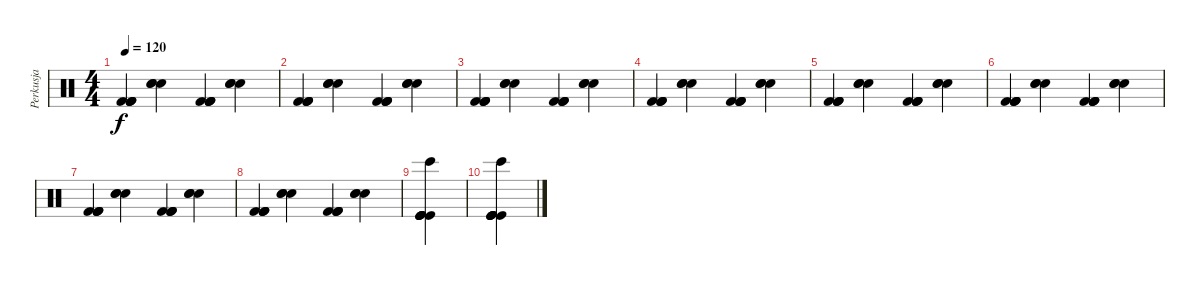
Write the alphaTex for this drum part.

\track ("Perkusja" "Perkusja") {instrument percussion}
\staff {score}
\articulation defaults
\ts (4 4)
\tempo 120
\clef neutral
\ks c
("Kick (hit) 2" "Kick (hit) 2" "Kick (hit) 2" "Kick (hit) 2").4{dy f} ("Snare (hit) 2" "Snare (hit) 2" "Snare (hit) 2").4 ("Kick (hit) 2" "Kick (hit) 2" "Kick (hit) 2" "Kick (hit) 2").4 ("Snare (hit) 2" "Snare (hit) 2" "Snare (hit) 2").4 |
("Kick (hit) 2" "Kick (hit) 2" "Kick (hit) 2" "Kick (hit) 2").4 ("Snare (hit) 2" "Snare (hit) 2" "Snare (hit) 2").4 ("Kick (hit) 2" "Kick (hit) 2" "Kick (hit) 2" "Kick (hit) 2").4 ("Snare (hit) 2" "Snare (hit) 2" "Snare (hit) 2").4 |
("Kick (hit) 2" "Kick (hit) 2" "Kick (hit) 2" "Kick (hit) 2").4 ("Snare (hit) 2" "Snare (hit) 2" "Snare (hit) 2").4 ("Kick (hit) 2" "Kick (hit) 2" "Kick (hit) 2" "Kick (hit) 2").4 ("Snare (hit) 2" "Snare (hit) 2" "Snare (hit) 2").4 |
("Kick (hit) 2" "Kick (hit) 2" "Kick (hit) 2" "Kick (hit) 2").4 ("Snare (hit) 2" "Snare (hit) 2" "Snare (hit) 2").4 ("Kick (hit) 2" "Kick (hit) 2" "Kick (hit) 2" "Kick (hit) 2").4 ("Snare (hit) 2" "Snare (hit) 2" "Snare (hit) 2").4 |
("Kick (hit) 2" "Kick (hit) 2" "Kick (hit) 2" "Kick (hit) 2").4 ("Snare (hit) 2" "Snare (hit) 2" "Snare (hit) 2").4 ("Kick (hit) 2" "Kick (hit) 2" "Kick (hit) 2" "Kick (hit) 2").4 ("Snare (hit) 2" "Snare (hit) 2" "Snare (hit) 2").4 |
("Kick (hit) 2" "Kick (hit) 2" "Kick (hit) 2" "Kick (hit) 2").4 ("Snare (hit) 2" "Snare (hit) 2" "Snare (hit) 2").4 ("Kick (hit) 2" "Kick (hit) 2" "Kick (hit) 2" "Kick (hit) 2").4 ("Snare (hit) 2" "Snare (hit) 2" "Snare (hit) 2").4 |
("Kick (hit) 2" "Kick (hit) 2" "Kick (hit) 2" "Kick (hit) 2").4 ("Snare (hit) 2" "Snare (hit) 2" "Snare (hit) 2").4 ("Kick (hit) 2" "Kick (hit) 2" "Kick (hit) 2" "Kick (hit) 2").4 ("Snare (hit) 2" "Snare (hit) 2" "Snare (hit) 2").4 |
("Kick (hit) 2" "Kick (hit) 2" "Kick (hit) 2" "Kick (hit) 2").4 ("Snare (hit) 2" "Snare (hit) 2" "Snare (hit) 2").4 ("Kick (hit) 2" "Kick (hit) 2" "Kick (hit) 2" "Kick (hit) 2").4 ("Snare (hit) 2" "Snare (hit) 2" "Snare (hit) 2").4 |
("Kick (hit)" "Kick (hit)" "Kick (hit)" "Bongo High (hit)" "Kick (hit)" "Kick (hit)").4 |
("Kick (hit)" "Kick (hit)" "Kick (hit)" "Bongo High (hit)" "Kick (hit)" "Kick (hit)").4
